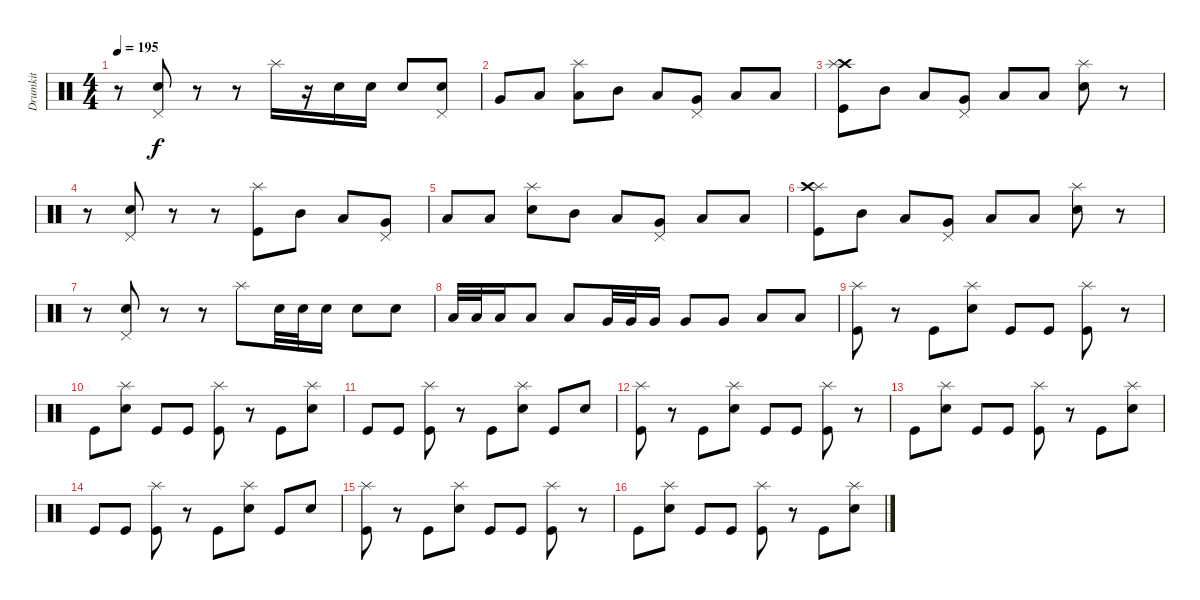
\track ("Drumkit" "Drumkit") {instrument percussion}
\staff {score}
\articulation defaults
\ts (4 4)
\tempo 195
\clef neutral
\ks c
r.8{dy f} ("Snare (hit) 2" "Pedal Hi-Hat (hit)").8 r.8 r.8 "Splash (hit)".16 r.16 "Snare (hit) 2".16 "Snare (hit) 2".16 "Snare (hit) 2".8 ("Snare (hit) 2" "Pedal Hi-Hat (hit)").8 |
"Very Low Tom (hit)".8 "Low Floor Tom (hit)".8 ("Low Tom (hit)" "Splash (hit)").8 "Mid Tom (hit)".8 "Low Tom (hit)".8 ("Very Low Tom (hit)" "Pedal Hi-Hat (hit)").8 "Low Floor Tom (hit)".8 "Low Floor Tom (hit)".8 |
("Kick (hit)" "Crash high (hit)" "Splash (hit)").8 "Mid Tom (hit)".8 "Low Tom (hit)".8 ("Very Low Tom (hit)" "Pedal Hi-Hat (hit)").8 "Low Floor Tom (hit)".8 "Low Floor Tom (hit)".8 ("Snare (hit) 2" "Splash (hit)").8 r.8 |
r.8 ("Snare (hit) 2" "Pedal Hi-Hat (hit)").8 r.8 r.8 ("Kick (hit)" "Splash (hit)").8 "Mid Tom (hit)".8 "Low Tom (hit)".8 ("Very Low Tom (hit)" "Pedal Hi-Hat (hit)").8 |
"Low Floor Tom (hit)".8 "Low Floor Tom (hit)".8 ("Snare (hit) 2" "Splash (hit)").8 "Mid Tom (hit)".8 "Low Tom (hit)".8 ("Very Low Tom (hit)" "Pedal Hi-Hat (hit)").8 "Low Floor Tom (hit)".8 "Low Floor Tom (hit)".8 |
("Kick (hit)" "Splash (hit)" "Crash high (hit)").8 "Mid Tom (hit)".8 "Low Tom (hit)".8 ("Very Low Tom (hit)" "Pedal Hi-Hat (hit)").8 "Low Floor Tom (hit)".8 "Low Floor Tom (hit)".8 ("Snare (hit) 2" "Splash (hit)").8 r.8 |
r.8 ("Snare (hit) 2" "Pedal Hi-Hat (hit)").8 r.8 r.8 "Splash (hit)".8 "Snare (hit) 2".32 "Snare (hit) 2".32 "Snare (hit) 2".16 "Snare (hit) 2".8 "Snare (hit) 2".8 |
"Low Tom (hit)".32 "Low Tom (hit)".32 "Low Tom (hit)".16 "Low Tom (hit)".8 "Low Tom (hit)".8 "Very Low Tom (hit)".32 "Very Low Tom (hit)".32 "Very Low Tom (hit)".16 "Very Low Tom (hit)".8 "Very Low Tom (hit)".8 "Low Floor Tom (hit)".8 "Low Floor Tom (hit)".8 |
("Kick (hit)" "Splash (hit)").8 r.8 "Kick (hit)".8 ("Snare (hit) 2" "Splash (hit)").8 "Kick (hit)".8 "Kick (hit)".8 ("Kick (hit)" "Splash (hit)").8 r.8 |
"Kick (hit)".8 ("Snare (hit) 2" "Splash (hit)").8 "Kick (hit)".8 "Kick (hit)".8 ("Kick (hit)" "Splash (hit)").8 r.8 "Kick (hit)".8 ("Snare (hit) 2" "Splash (hit)").8 |
"Kick (hit)".8 "Kick (hit)".8 ("Kick (hit)" "Splash (hit)").8 r.8 "Kick (hit)".8 ("Snare (hit) 2" "Splash (hit)").8 "Kick (hit)".8 "Snare (hit) 2".8 |
("Kick (hit)" "Splash (hit)").8 r.8 "Kick (hit)".8 ("Snare (hit) 2" "Splash (hit)").8 "Kick (hit)".8 "Kick (hit)".8 ("Kick (hit)" "Splash (hit)").8 r.8 |
"Kick (hit)".8 ("Snare (hit) 2" "Splash (hit)").8 "Kick (hit)".8 "Kick (hit)".8 ("Kick (hit)" "Splash (hit)").8 r.8 "Kick (hit)".8 ("Snare (hit) 2" "Splash (hit)").8 |
"Kick (hit)".8 "Kick (hit)".8 ("Kick (hit)" "Splash (hit)").8 r.8 "Kick (hit)".8 ("Snare (hit) 2" "Splash (hit)").8 "Kick (hit)".8 "Snare (hit) 2".8 |
("Kick (hit)" "Splash (hit)").8 r.8 "Kick (hit)".8 ("Snare (hit) 2" "Splash (hit)").8 "Kick (hit)".8 "Kick (hit)".8 ("Kick (hit)" "Splash (hit)").8 r.8 |
"Kick (hit)".8 ("Snare (hit) 2" "Splash (hit)").8 "Kick (hit)".8 "Kick (hit)".8 ("Kick (hit)" "Splash (hit)").8 r.8 "Kick (hit)".8 ("Snare (hit) 2" "Splash (hit)").8
